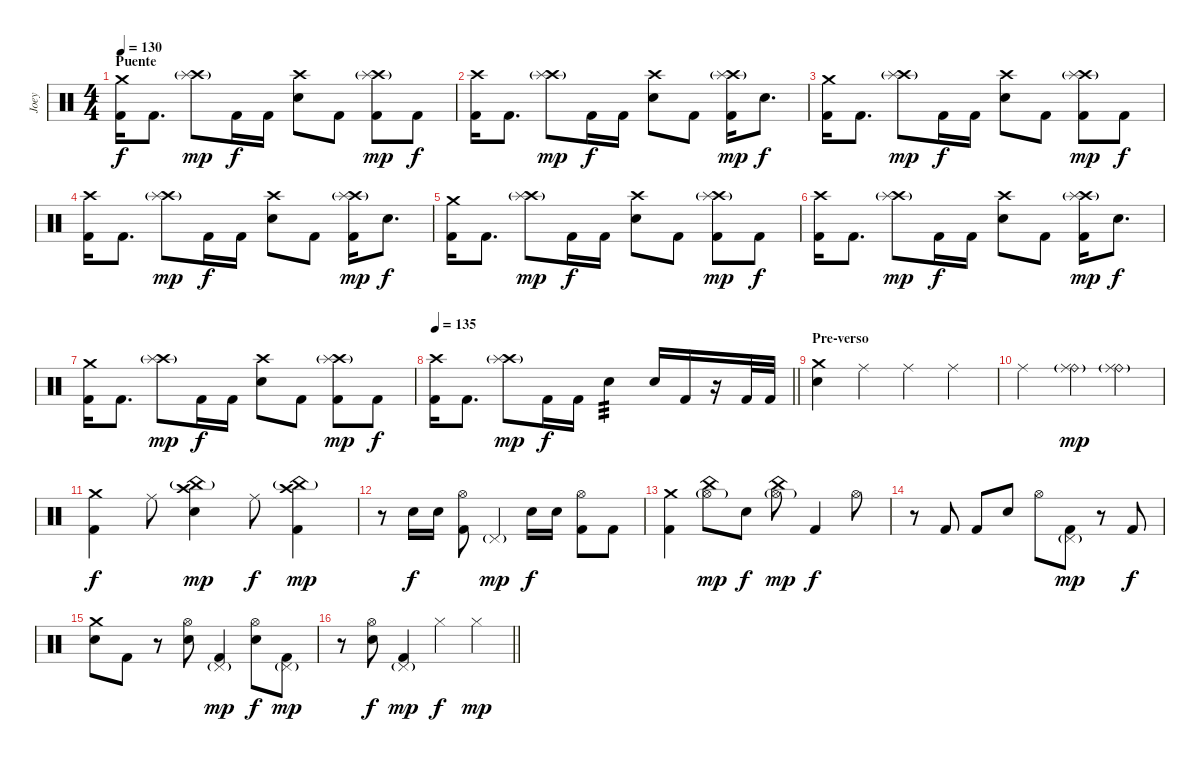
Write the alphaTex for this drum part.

\track ("Joey" "Joey") {instrument percussion}
\staff {score}
\articulation defaults
\ts (4 4)
\section ("" "Puente")
\tempo 130
\clef neutral
\ks c
("Crash medium (hit)" "Kick (hit) 2").16{dy f} "Kick (hit) 2".8{d} ("Crash high (hit)" "Splash (hit)"{g}).8{dy mp} "Kick (hit) 2".16{dy f} "Kick (hit) 2".16 ("Crash high (hit)" "Electric Snare (hit)").8 "Kick (hit) 2".8 ("Crash high (hit)" "Splash (hit)"{g} "Kick (hit) 2").8{dy mp} "Kick (hit) 2".8{dy f} |
("Crash high (hit)" "Kick (hit) 2").16 "Kick (hit) 2".8{d} ("Crash high (hit)" "Splash (hit)"{g}).8{dy mp} "Kick (hit) 2".16{dy f} "Kick (hit) 2".16 ("Crash high (hit)" "Electric Snare (hit)").8 "Kick (hit) 2".8 ("Crash high (hit)" "Splash (hit)"{g} "Kick (hit) 2").16{dy mp} "Electric Snare (hit)".8{d dy f} |
("Crash medium (hit)" "Kick (hit) 2").16 "Kick (hit) 2".8{d} ("Crash high (hit)" "Splash (hit)"{g}).8{dy mp} "Kick (hit) 2".16{dy f} "Kick (hit) 2".16 ("Crash high (hit)" "Electric Snare (hit)").8 "Kick (hit) 2".8 ("Crash high (hit)" "Splash (hit)"{g} "Kick (hit) 2").8{dy mp} "Kick (hit) 2".8{dy f} |
("Crash high (hit)" "Kick (hit) 2").16 "Kick (hit) 2".8{d} ("Crash high (hit)" "Splash (hit)"{g}).8{dy mp} "Kick (hit) 2".16{dy f} "Kick (hit) 2".16 ("Crash high (hit)" "Electric Snare (hit)").8 "Kick (hit) 2".8 ("Crash high (hit)" "Splash (hit)"{g} "Kick (hit) 2").16{dy mp} "Electric Snare (hit)".8{d dy f} |
("Crash medium (hit)" "Kick (hit) 2").16 "Kick (hit) 2".8{d} ("Crash high (hit)" "Splash (hit)"{g}).8{dy mp} "Kick (hit) 2".16{dy f} "Kick (hit) 2".16 ("Crash high (hit)" "Electric Snare (hit)").8 "Kick (hit) 2".8 ("Crash high (hit)" "Splash (hit)"{g} "Kick (hit) 2").8{dy mp} "Kick (hit) 2".8{dy f} |
("Crash high (hit)" "Kick (hit) 2").16 "Kick (hit) 2".8{d} ("Crash high (hit)" "Splash (hit)"{g}).8{dy mp} "Kick (hit) 2".16{dy f} "Kick (hit) 2".16 ("Crash high (hit)" "Electric Snare (hit)").8 "Kick (hit) 2".8 ("Crash high (hit)" "Splash (hit)"{g} "Kick (hit) 2").16{dy mp} "Electric Snare (hit)".8{d dy f} |
("Crash medium (hit)" "Kick (hit) 2").16 "Kick (hit) 2".8{d} ("Crash high (hit)" "Splash (hit)"{g}).8{dy mp} "Kick (hit) 2".16{dy f} "Kick (hit) 2".16 ("Crash high (hit)" "Electric Snare (hit)").8 "Kick (hit) 2".8 ("Crash high (hit)" "Splash (hit)"{g} "Kick (hit) 2").8{dy mp} "Kick (hit) 2".8{dy f} |
\tempo 135
\barLineRight lightlight
("Crash high (hit)" "Kick (hit) 2").16 "Kick (hit) 2".8{d} ("Crash high (hit)" "Splash (hit)"{g}).8{dy mp} "Kick (hit) 2".16{dy f} "Kick (hit) 2".16 "Electric Snare (hit)".4{tp 3} "Electric Snare (hit)".16 "Kick (hit) 2".16 r.16 "Kick (hit) 2".32 "Kick (hit) 2".32 |
\section ("" "Pre-verso")
("Crash medium (hit)" "Electric Snare (hit)").4 "Ride (middle)".4 "Ride (middle)".4 "Ride (middle)".4 |
"Ride (middle)".2 ("Ride (bell)" "Ride (middle)"{g}).4{dy mp} ("Ride (bell)" "Ride (middle)"{g}).4 |
("Crash medium (hit)" "Kick (hit) 2").4{dy f} "Ride (middle)".8 ("Crash high (hit)" "China (hit)"{g} "Electric Snare (hit)").4{dy mp} "Ride (middle)".8{dy f} ("Crash high (hit)" "China (hit)"{g} "Kick (hit) 2").4{dy mp} |
r.8 "Electric Snare (hit)".16{dy f} "Electric Snare (hit)".16 ("Hi-Hat (open)" "Kick (hit) 2").8 "Pedal Hi-Hat (hit)"{g}.4{dy mp} "Electric Snare (hit)".16{dy f} "Electric Snare (hit)".16 ("Hi-Hat (open)" "Kick (hit) 2").8 "Kick (hit) 2".8 |
("Crash medium (hit)" "Kick (hit) 2").4 ("Hi-Hat (open)"{g} "China (hit)").8{dy mp} "Electric Snare (hit)".8{dy f} ("Hi-Hat (open)"{g} "China (hit)").8{dy mp} "Kick (hit) 2".4{dy f} "Hi-Hat (open)".8 |
r.8 "Kick (hit) 2".8 "Kick (hit) 2".8 "Electric Snare (hit)".8 "Hi-Hat (open)".8 ("Pedal Hi-Hat (hit)"{g} "Kick (hit) 2").8{dy mp} r.8 "Kick (hit) 2".8{dy f} |
("Crash medium (hit)" "Electric Snare (hit)").8 "Kick (hit) 2".8 r.8 ("Hi-Hat (open)" "Electric Snare (hit)").8 ("Pedal Hi-Hat (hit)"{g} "Kick (hit) 2").4{dy mp} ("Hi-Hat (open)" "Electric Snare (hit)").8{dy f} ("Pedal Hi-Hat (hit)"{g} "Kick (hit) 2").8{dy mp} |
\barLineRight lightlight
r.8 ("Hi-Hat (open)" "Electric Snare (hit)").8{dy f} ("Pedal Hi-Hat (hit)"{g} "Kick (hit) 2").4{dy mp} "Hi-Hat (closed)".4{dy f} "Hi-Hat (closed)".4{dy mp}
